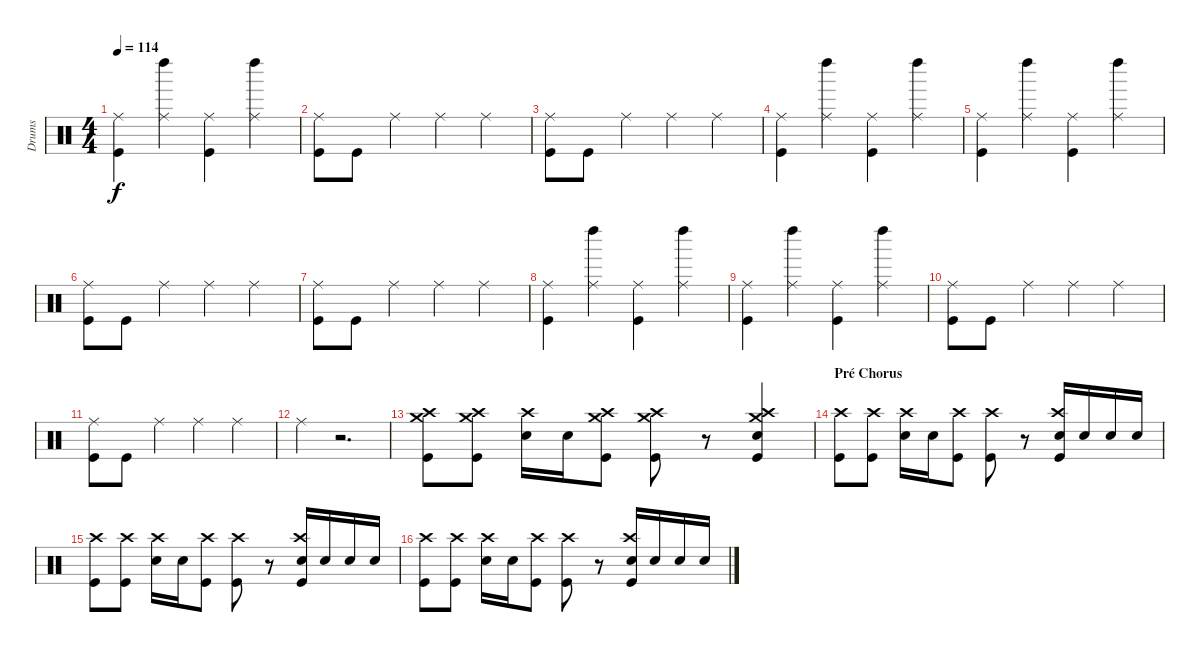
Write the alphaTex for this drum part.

\track ("Drums" "Drums") {instrument percussion}
\staff {score}
\articulation defaults
\ts (4 4)
\tempo 114
\clef neutral
\ks c
("Ride (middle)" "Kick (hit)").4{dy f} ("Ride (middle)" "Left Maraca (hit)").4 ("Ride (middle)" "Kick (hit)").4 ("Ride (middle)" "Left Maraca (hit)").4 |
("Ride (middle)" "Kick (hit)").8 "Kick (hit)".8 "Ride (middle)".4 "Ride (middle)".4 "Ride (middle)".4 |
("Ride (middle)" "Kick (hit)").8 "Kick (hit)".8 "Ride (middle)".4 "Ride (middle)".4 "Ride (middle)".4 |
("Ride (middle)" "Kick (hit)").4 ("Ride (middle)" "Left Maraca (hit)").4 ("Ride (middle)" "Kick (hit)").4 ("Ride (middle)" "Left Maraca (hit)").4 |
("Ride (middle)" "Kick (hit)").4 ("Ride (middle)" "Left Maraca (hit)").4 ("Ride (middle)" "Kick (hit)").4 ("Ride (middle)" "Left Maraca (hit)").4 |
("Ride (middle)" "Kick (hit)").8 "Kick (hit)".8 "Ride (middle)".4 "Ride (middle)".4 "Ride (middle)".4 |
("Ride (middle)" "Kick (hit)").8 "Kick (hit)".8 "Ride (middle)".4 "Ride (middle)".4 "Ride (middle)".4 |
("Ride (middle)" "Kick (hit)").4 ("Ride (middle)" "Left Maraca (hit)").4 ("Ride (middle)" "Kick (hit)").4 ("Ride (middle)" "Left Maraca (hit)").4 |
("Ride (middle)" "Kick (hit)").4 ("Ride (middle)" "Left Maraca (hit)").4 ("Ride (middle)" "Kick (hit)").4 ("Ride (middle)" "Left Maraca (hit)").4 |
("Ride (middle)" "Kick (hit)").8 "Kick (hit)".8 "Ride (middle)".4 "Ride (middle)".4 "Ride (middle)".4 |
("Ride (middle)" "Kick (hit)").8 "Kick (hit)".8 "Ride (middle)".4 "Ride (middle)".4 "Ride (middle)".4 |
"Ride (middle)".4 r.2{d} |
("Crash high (hit)" "Crash medium (hit)" "Kick (hit)").8 ("Crash high (hit)" "Crash medium (hit)" "Kick (hit)").8 ("Crash high (hit)" "Electric Snare (hit)").16 "Electric Snare (hit)".16 ("Crash high (hit)" "Crash medium (hit)" "Kick (hit)").8 ("Crash high (hit)" "Crash medium (hit)" "Kick (hit)").8 r.8 ("Crash high (hit)" "Crash medium (hit)" "Electric Snare (hit)" "Kick (hit)").4 |
\section ("" "Pré Chorus")
("Crash high (hit)" "Kick (hit)").8 ("Crash high (hit)" "Kick (hit)").8 ("Crash high (hit)" "Electric Snare (hit)").16 "Electric Snare (hit)".16 ("Crash high (hit)" "Kick (hit)").8 ("Crash high (hit)" "Kick (hit)").8 r.8 ("Crash high (hit)" "Electric Snare (hit)" "Kick (hit)").16 "Electric Snare (hit)".16 "Electric Snare (hit)".16 "Electric Snare (hit)".16 |
("Crash high (hit)" "Kick (hit)").8 ("Crash high (hit)" "Kick (hit)").8 ("Crash high (hit)" "Electric Snare (hit)").16 "Electric Snare (hit)".16 ("Crash high (hit)" "Kick (hit)").8 ("Crash high (hit)" "Kick (hit)").8 r.8 ("Crash high (hit)" "Electric Snare (hit)" "Kick (hit)").16 "Electric Snare (hit)".16 "Electric Snare (hit)".16 "Electric Snare (hit)".16 |
("Crash high (hit)" "Kick (hit)").8 ("Crash high (hit)" "Kick (hit)").8 ("Crash high (hit)" "Electric Snare (hit)").16 "Electric Snare (hit)".16 ("Crash high (hit)" "Kick (hit)").8 ("Crash high (hit)" "Kick (hit)").8 r.8 ("Crash high (hit)" "Electric Snare (hit)" "Kick (hit)").16 "Electric Snare (hit)".16 "Electric Snare (hit)".16 "Electric Snare (hit)".16
